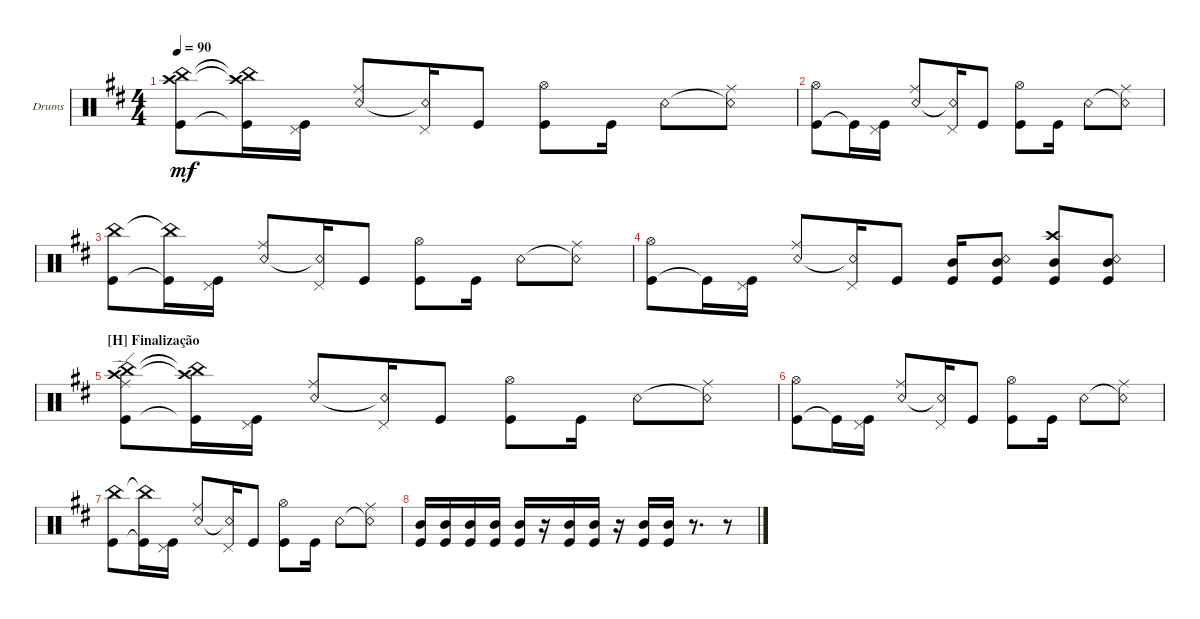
\defaultSystemsLayout 4
\bracketExtendMode groupsimilarinstruments
\firstSystemTrackNameOrientation horizontal
\otherSystemsTrackNameOrientation horizontal
\track ("Bateria" "Drums") {multiBarRest instrument percussion}
\staff {score}
\articulation defaults
\ts (4 4)
\tempo 90
\clef neutral
\ks d
("Kick (hit)" "China (hit)" "Crash high (hit)").8{dy mf} ("Kick (hit)"{t} "China (hit)"{t} "Crash high (hit)"{t}).16 ("Kick (hit)" "Pedal Hi-Hat (hit)").16 ("Snare (rim shot)" "Ride (middle)").8 ("Snare (rim shot)"{t} "Pedal Hi-Hat (hit)").16 "Kick (hit)".8 ("Kick (hit)" "Hi-Hat (open)").8 "Kick (hit)".16 "Snare (rim shot)".8 ("Snare (rim shot)"{t} "Ride (middle)").8 |
("Kick (hit)" "Hi-Hat (open)").8 "Kick (hit)"{t}.16 ("Kick (hit)" "Pedal Hi-Hat (hit)").16 ("Snare (rim shot)" "Ride (middle)").8 ("Snare (rim shot)"{t} "Pedal Hi-Hat (hit)").16 "Kick (hit)".8 ("Kick (hit)" "Hi-Hat (open)").8 "Kick (hit)".16 "Snare (rim shot)".8 ("Snare (rim shot)"{t} "Ride (middle)").8 |
("Kick (hit)" "China (hit)").8 ("Kick (hit)"{t} "China (hit)"{t}).16 ("Kick (hit)" "Pedal Hi-Hat (hit)").16 ("Snare (rim shot)" "Ride (middle)").8 ("Snare (rim shot)"{t} "Pedal Hi-Hat (hit)").16 "Kick (hit)".8 ("Kick (hit)" "Hi-Hat (open)").8 "Kick (hit)".16 "Snare (rim shot)".8 ("Snare (rim shot)"{t} "Ride (middle)").8 |
("Kick (hit)" "Hi-Hat (open)").8 "Kick (hit)"{t}.16 ("Kick (hit)" "Pedal Hi-Hat (hit)").16 ("Snare (rim shot)" "Ride (middle)").8 ("Snare (rim shot)"{t} "Pedal Hi-Hat (hit)").16 "Kick (hit)".8 ("Kick (hit)" "Mid Tom (hit)").16 ("Snare (rim shot)" "Mid Tom (hit)" "Kick (hit)").8 ("Kick (hit)" "Mid Tom (hit)" "Crash high (hit)").8 ("Snare (rim shot)" "Mid Tom (hit)" "Kick (hit)").8 |
\section ("H" "Finalização")
("Kick (hit)" "China (hit)" "Crash high (hit)" "Ride (edge)").8 ("Kick (hit)"{t} "China (hit)"{t} "Crash high (hit)"{t}).16 ("Kick (hit)" "Pedal Hi-Hat (hit)").16 ("Snare (rim shot)" "Ride (middle)").8 ("Snare (rim shot)"{t} "Pedal Hi-Hat (hit)").16 "Kick (hit)".8 ("Kick (hit)" "Hi-Hat (open)").8 "Kick (hit)".16 "Snare (rim shot)".8 ("Snare (rim shot)"{t} "Ride (middle)").8 |
("Kick (hit)" "Hi-Hat (open)").8 "Kick (hit)"{t}.16 ("Kick (hit)" "Pedal Hi-Hat (hit)").16 ("Snare (rim shot)" "Ride (middle)").8 ("Snare (rim shot)"{t} "Pedal Hi-Hat (hit)").16 "Kick (hit)".8 ("Kick (hit)" "Hi-Hat (open)").8 "Kick (hit)".16 "Snare (rim shot)".8 ("Snare (rim shot)"{t} "Ride (middle)").8 |
("Kick (hit)" "China (hit)").8 ("Kick (hit)"{t} "China (hit)"{t}).16 ("Kick (hit)" "Pedal Hi-Hat (hit)").16 ("Snare (rim shot)" "Ride (middle)").8 ("Snare (rim shot)"{t} "Pedal Hi-Hat (hit)").16 "Kick (hit)".8 ("Kick (hit)" "Hi-Hat (open)").8 "Kick (hit)".16 "Snare (rim shot)".8 ("Snare (rim shot)"{t} "Ride (middle)").8 |
("Kick (hit)" "Mid Tom (hit)").16 ("Kick (hit)" "Mid Tom (hit)").16 ("Kick (hit)" "Mid Tom (hit)").16 ("Kick (hit)" "Mid Tom (hit)").16 ("Kick (hit)" "Mid Tom (hit)").16 r.16 ("Kick (hit)" "Mid Tom (hit)").16 ("Kick (hit)" "Mid Tom (hit)").16 r.16 ("Kick (hit)" "Mid Tom (hit)").16 ("Kick (hit)" "Mid Tom (hit)").16 r.8{d} r.8
